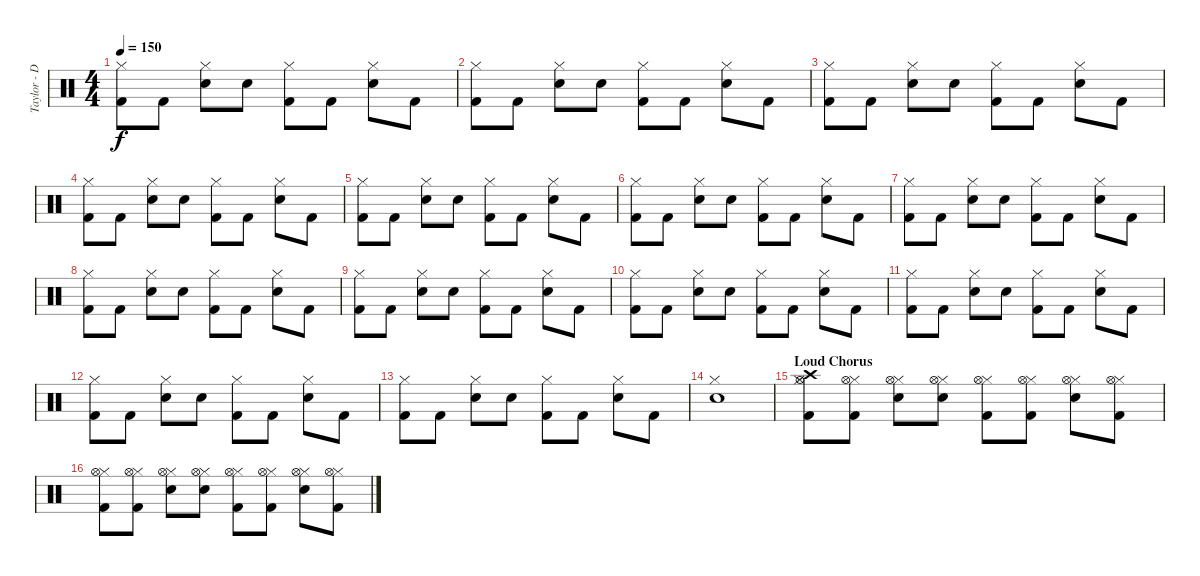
\track ("Taylor - Drums" "Taylor - D") {instrument percussion}
\staff {score}
\articulation defaults
\ts (4 4)
\tempo 150
\clef neutral
\ks c
("Kick (hit) 2" "Hi-Hat (closed)").8{dy f} "Kick (hit) 2".8 ("Snare (hit) 2" "Hi-Hat (closed)").8 "Snare (hit) 2".8 ("Kick (hit) 2" "Hi-Hat (closed)").8 "Kick (hit) 2".8 ("Snare (hit) 2" "Hi-Hat (closed)").8 "Kick (hit) 2".8 |
("Kick (hit) 2" "Hi-Hat (closed)").8 "Kick (hit) 2".8 ("Snare (hit) 2" "Hi-Hat (closed)").8 "Snare (hit) 2".8 ("Kick (hit) 2" "Hi-Hat (closed)").8 "Kick (hit) 2".8 ("Snare (hit) 2" "Hi-Hat (closed)").8 "Kick (hit) 2".8 |
("Kick (hit) 2" "Hi-Hat (closed)").8 "Kick (hit) 2".8 ("Snare (hit) 2" "Hi-Hat (closed)").8 "Snare (hit) 2".8 ("Kick (hit) 2" "Hi-Hat (closed)").8 "Kick (hit) 2".8 ("Snare (hit) 2" "Hi-Hat (closed)").8 "Kick (hit) 2".8 |
("Kick (hit) 2" "Hi-Hat (closed)").8 "Kick (hit) 2".8 ("Snare (hit) 2" "Hi-Hat (closed)").8 "Snare (hit) 2".8 ("Kick (hit) 2" "Hi-Hat (closed)").8 "Kick (hit) 2".8 ("Snare (hit) 2" "Hi-Hat (closed)").8 "Kick (hit) 2".8 |
("Kick (hit) 2" "Hi-Hat (closed)").8 "Kick (hit) 2".8 ("Snare (hit) 2" "Hi-Hat (closed)").8 "Snare (hit) 2".8 ("Kick (hit) 2" "Hi-Hat (closed)").8 "Kick (hit) 2".8 ("Snare (hit) 2" "Hi-Hat (closed)").8 "Kick (hit) 2".8 |
("Kick (hit) 2" "Hi-Hat (closed)").8 "Kick (hit) 2".8 ("Snare (hit) 2" "Hi-Hat (closed)").8 "Snare (hit) 2".8 ("Kick (hit) 2" "Hi-Hat (closed)").8 "Kick (hit) 2".8 ("Snare (hit) 2" "Hi-Hat (closed)").8 "Kick (hit) 2".8 |
("Kick (hit) 2" "Hi-Hat (closed)").8 "Kick (hit) 2".8 ("Snare (hit) 2" "Hi-Hat (closed)").8 "Snare (hit) 2".8 ("Kick (hit) 2" "Hi-Hat (closed)").8 "Kick (hit) 2".8 ("Snare (hit) 2" "Hi-Hat (closed)").8 "Kick (hit) 2".8 |
("Kick (hit) 2" "Hi-Hat (closed)").8 "Kick (hit) 2".8 ("Snare (hit) 2" "Hi-Hat (closed)").8 "Snare (hit) 2".8 ("Kick (hit) 2" "Hi-Hat (closed)").8 "Kick (hit) 2".8 ("Snare (hit) 2" "Hi-Hat (closed)").8 "Kick (hit) 2".8 |
("Kick (hit) 2" "Hi-Hat (closed)").8 "Kick (hit) 2".8 ("Snare (hit) 2" "Hi-Hat (closed)").8 "Snare (hit) 2".8 ("Kick (hit) 2" "Hi-Hat (closed)").8 "Kick (hit) 2".8 ("Snare (hit) 2" "Hi-Hat (closed)").8 "Kick (hit) 2".8 |
("Kick (hit) 2" "Hi-Hat (closed)").8 "Kick (hit) 2".8 ("Snare (hit) 2" "Hi-Hat (closed)").8 "Snare (hit) 2".8 ("Kick (hit) 2" "Hi-Hat (closed)").8 "Kick (hit) 2".8 ("Snare (hit) 2" "Hi-Hat (closed)").8 "Kick (hit) 2".8 |
("Kick (hit) 2" "Hi-Hat (closed)").8 "Kick (hit) 2".8 ("Snare (hit) 2" "Hi-Hat (closed)").8 "Snare (hit) 2".8 ("Kick (hit) 2" "Hi-Hat (closed)").8 "Kick (hit) 2".8 ("Snare (hit) 2" "Hi-Hat (closed)").8 "Kick (hit) 2".8 |
("Kick (hit) 2" "Hi-Hat (closed)").8 "Kick (hit) 2".8 ("Snare (hit) 2" "Hi-Hat (closed)").8 "Snare (hit) 2".8 ("Kick (hit) 2" "Hi-Hat (closed)").8 "Kick (hit) 2".8 ("Snare (hit) 2" "Hi-Hat (closed)").8 "Kick (hit) 2".8 |
("Kick (hit) 2" "Hi-Hat (closed)").8 "Kick (hit) 2".8 ("Snare (hit) 2" "Hi-Hat (closed)").8 "Snare (hit) 2".8 ("Kick (hit) 2" "Hi-Hat (closed)").8 "Kick (hit) 2".8 ("Snare (hit) 2" "Hi-Hat (closed)").8 "Kick (hit) 2".8 |
("Snare (hit) 2" "Hi-Hat (closed)").1 |
\section ("" "Loud Chorus")
("Kick (hit) 2" "Hi-Hat (closed)" "Hi-Hat (open)" "Crash high (hit)").8 ("Kick (hit) 2" "Hi-Hat (closed)" "Hi-Hat (open)").8 ("Snare (hit) 2" "Hi-Hat (closed)" "Hi-Hat (open)").8 ("Snare (hit) 2" "Hi-Hat (closed)" "Hi-Hat (open)").8 ("Kick (hit) 2" "Hi-Hat (closed)" "Hi-Hat (open)").8 ("Kick (hit) 2" "Hi-Hat (closed)" "Hi-Hat (open)").8 ("Snare (hit) 2" "Hi-Hat (closed)" "Hi-Hat (open)").8 ("Kick (hit) 2" "Hi-Hat (closed)" "Hi-Hat (open)").8 |
("Kick (hit) 2" "Hi-Hat (closed)" "Hi-Hat (open)").8 ("Kick (hit) 2" "Hi-Hat (closed)" "Hi-Hat (open)").8 ("Snare (hit) 2" "Hi-Hat (closed)" "Hi-Hat (open)").8 ("Snare (hit) 2" "Hi-Hat (closed)" "Hi-Hat (open)").8 ("Kick (hit) 2" "Hi-Hat (closed)" "Hi-Hat (open)").8 ("Kick (hit) 2" "Hi-Hat (closed)" "Hi-Hat (open)").8 ("Snare (hit) 2" "Hi-Hat (closed)" "Hi-Hat (open)").8 ("Kick (hit) 2" "Hi-Hat (closed)" "Hi-Hat (open)").8
